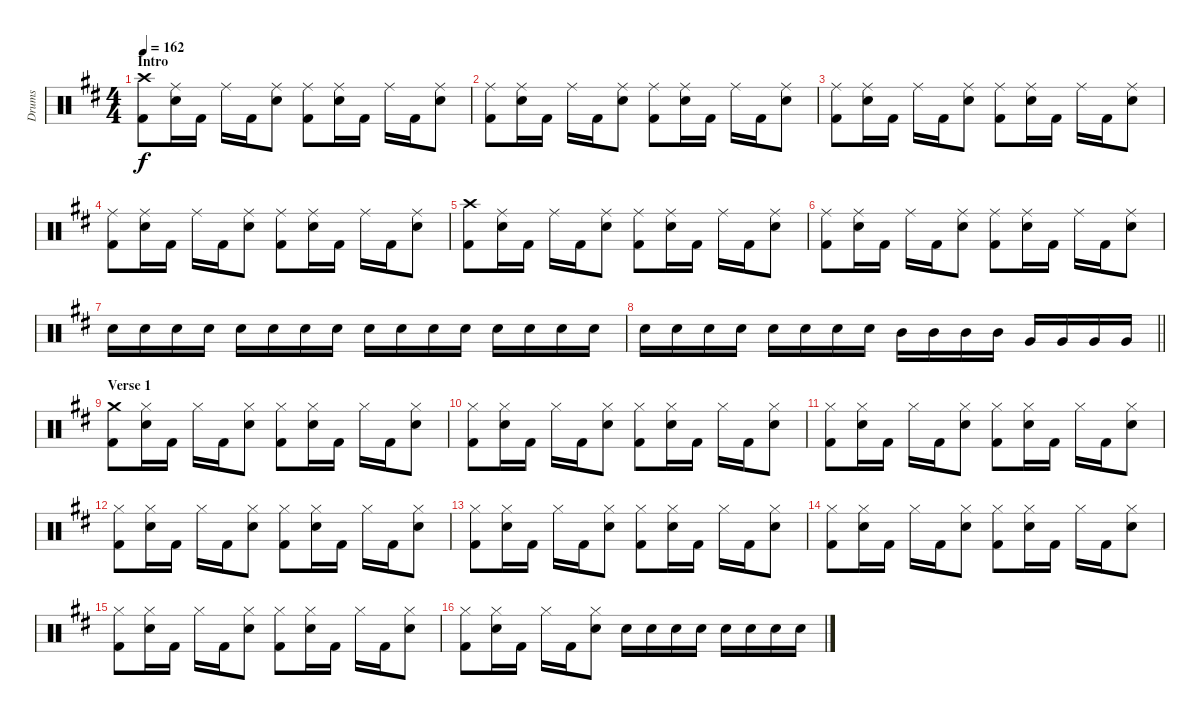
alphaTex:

\track ("Drums" "Drums") {instrument percussion}
\staff {score}
\articulation defaults
\ts (4 4)
\section ("" "Intro")
\tempo 162
\clef neutral
\ks d
("Crash high (hit)" "Kick (hit) 2").8{dy f} ("Ride (middle)" "Snare (hit) 2").16 "Kick (hit) 2".16 "Ride (middle)".16 "Kick (hit) 2".16 ("Ride (middle)" "Snare (hit) 2").8 ("Ride (middle)" "Kick (hit) 2").8 ("Ride (middle)" "Snare (hit) 2").16 "Kick (hit) 2".16 "Ride (middle)".16 "Kick (hit) 2".16 ("Ride (middle)" "Snare (hit) 2").8 |
("Ride (middle)" "Kick (hit) 2").8 ("Ride (middle)" "Snare (hit) 2").16 "Kick (hit) 2".16 "Ride (middle)".16 "Kick (hit) 2".16 ("Ride (middle)" "Snare (hit) 2").8 ("Ride (middle)" "Kick (hit) 2").8 ("Ride (middle)" "Snare (hit) 2").16 "Kick (hit) 2".16 "Ride (middle)".16 "Kick (hit) 2".16 ("Ride (middle)" "Snare (hit) 2").8 |
("Ride (middle)" "Kick (hit) 2").8 ("Ride (middle)" "Snare (hit) 2").16 "Kick (hit) 2".16 "Ride (middle)".16 "Kick (hit) 2".16 ("Ride (middle)" "Snare (hit) 2").8 ("Ride (middle)" "Kick (hit) 2").8 ("Ride (middle)" "Snare (hit) 2").16 "Kick (hit) 2".16 "Ride (middle)".16 "Kick (hit) 2".16 ("Ride (middle)" "Snare (hit) 2").8 |
("Ride (middle)" "Kick (hit) 2").8 ("Ride (middle)" "Snare (hit) 2").16 "Kick (hit) 2".16 "Ride (middle)".16 "Kick (hit) 2".16 ("Ride (middle)" "Snare (hit) 2").8 ("Ride (middle)" "Kick (hit) 2").8 ("Ride (middle)" "Snare (hit) 2").16 "Kick (hit) 2".16 "Ride (middle)".16 "Kick (hit) 2".16 ("Ride (middle)" "Snare (hit) 2").8 |
("Crash high (hit)" "Kick (hit) 2").8 ("Ride (middle)" "Snare (hit) 2").16 "Kick (hit) 2".16 "Ride (middle)".16 "Kick (hit) 2".16 ("Ride (middle)" "Snare (hit) 2").8 ("Ride (middle)" "Kick (hit) 2").8 ("Ride (middle)" "Snare (hit) 2").16 "Kick (hit) 2".16 "Ride (middle)".16 "Kick (hit) 2".16 ("Ride (middle)" "Snare (hit) 2").8 |
("Ride (middle)" "Kick (hit) 2").8 ("Ride (middle)" "Snare (hit) 2").16 "Kick (hit) 2".16 "Ride (middle)".16 "Kick (hit) 2".16 ("Ride (middle)" "Snare (hit) 2").8 ("Ride (middle)" "Kick (hit) 2").8 ("Ride (middle)" "Snare (hit) 2").16 "Kick (hit) 2".16 "Ride (middle)".16 "Kick (hit) 2".16 ("Ride (middle)" "Snare (hit) 2").8 |
"Snare (hit) 2".16 "Snare (hit) 2".16 "Snare (hit) 2".16 "Snare (hit) 2".16 "Snare (hit) 2".16 "Snare (hit) 2".16 "Snare (hit) 2".16 "Snare (hit) 2".16 "Snare (hit) 2".16 "Snare (hit) 2".16 "Snare (hit) 2".16 "Snare (hit) 2".16 "Snare (hit) 2".16 "Snare (hit) 2".16 "Snare (hit) 2".16 "Snare (hit) 2".16 |
\barLineRight lightlight "Snare (hit) 2".16 "Snare (hit) 2".16 "Snare (hit) 2".16 "Snare (hit) 2".16 "Snare (hit) 2".16 "Snare (hit) 2".16 "Snare (hit) 2".16 "Snare (hit) 2".16 "Mid Tom (hit)".16 "Mid Tom (hit)".16 "Mid Tom (hit)".16 "Mid Tom (hit)".16 "Very Low Tom (hit)".16 "Very Low Tom (hit)".16 "Very Low Tom (hit)".16 "Very Low Tom (hit)".16
|
\section ("" "Verse 1")
("Crash medium (hit)" "Kick (hit) 2").8 ("Hi-Hat (closed)" "Snare (hit) 2").16 "Kick (hit) 2".16 "Hi-Hat (closed)".16 "Kick (hit) 2".16 ("Hi-Hat (closed)" "Snare (hit) 2").8 ("Hi-Hat (closed)" "Kick (hit) 2").8 ("Hi-Hat (closed)" "Snare (hit) 2").16 "Kick (hit) 2".16 "Hi-Hat (closed)".16 "Kick (hit) 2".16 ("Hi-Hat (closed)" "Snare (hit) 2").8 |
("Hi-Hat (closed)" "Kick (hit) 2").8 ("Hi-Hat (closed)" "Snare (hit) 2").16 "Kick (hit) 2".16 "Hi-Hat (closed)".16 "Kick (hit) 2".16 ("Hi-Hat (closed)" "Snare (hit) 2").8 ("Hi-Hat (closed)" "Kick (hit) 2").8 ("Hi-Hat (closed)" "Snare (hit) 2").16 "Kick (hit) 2".16 "Hi-Hat (closed)".16 "Kick (hit) 2".16 ("Hi-Hat (closed)" "Snare (hit) 2").8 |
("Hi-Hat (closed)" "Kick (hit) 2").8 ("Hi-Hat (closed)" "Snare (hit) 2").16 "Kick (hit) 2".16 "Hi-Hat (closed)".16 "Kick (hit) 2".16 ("Hi-Hat (closed)" "Snare (hit) 2").8 ("Hi-Hat (closed)" "Kick (hit) 2").8 ("Hi-Hat (closed)" "Snare (hit) 2").16 "Kick (hit) 2".16 "Hi-Hat (closed)".16 "Kick (hit) 2".16 ("Hi-Hat (closed)" "Snare (hit) 2").8 |
("Hi-Hat (closed)" "Kick (hit) 2").8 ("Hi-Hat (closed)" "Snare (hit) 2").16 "Kick (hit) 2".16 "Hi-Hat (closed)".16 "Kick (hit) 2".16 ("Hi-Hat (closed)" "Snare (hit) 2").8 ("Hi-Hat (closed)" "Kick (hit) 2").8 ("Hi-Hat (closed)" "Snare (hit) 2").16 "Kick (hit) 2".16 "Hi-Hat (closed)".16 "Kick (hit) 2".16 ("Hi-Hat (closed)" "Snare (hit) 2").8 |
("Hi-Hat (closed)" "Kick (hit) 2").8 ("Hi-Hat (closed)" "Snare (hit) 2").16 "Kick (hit) 2".16 "Hi-Hat (closed)".16 "Kick (hit) 2".16 ("Hi-Hat (closed)" "Snare (hit) 2").8 ("Hi-Hat (closed)" "Kick (hit) 2").8 ("Hi-Hat (closed)" "Snare (hit) 2").16 "Kick (hit) 2".16 "Hi-Hat (closed)".16 "Kick (hit) 2".16 ("Hi-Hat (closed)" "Snare (hit) 2").8 |
("Hi-Hat (closed)" "Kick (hit) 2").8 ("Hi-Hat (closed)" "Snare (hit) 2").16 "Kick (hit) 2".16 "Hi-Hat (closed)".16 "Kick (hit) 2".16 ("Hi-Hat (closed)" "Snare (hit) 2").8 ("Hi-Hat (closed)" "Kick (hit) 2").8 ("Hi-Hat (closed)" "Snare (hit) 2").16 "Kick (hit) 2".16 "Hi-Hat (closed)".16 "Kick (hit) 2".16 ("Hi-Hat (closed)" "Snare (hit) 2").8 |
("Hi-Hat (closed)" "Kick (hit) 2").8 ("Hi-Hat (closed)" "Snare (hit) 2").16 "Kick (hit) 2".16 "Hi-Hat (closed)".16 "Kick (hit) 2".16 ("Hi-Hat (closed)" "Snare (hit) 2").8 ("Hi-Hat (closed)" "Kick (hit) 2").8 ("Hi-Hat (closed)" "Snare (hit) 2").16 "Kick (hit) 2".16 "Hi-Hat (closed)".16 "Kick (hit) 2".16 ("Hi-Hat (closed)" "Snare (hit) 2").8 |
("Hi-Hat (closed)" "Kick (hit) 2").8 ("Hi-Hat (closed)" "Snare (hit) 2").16 "Kick (hit) 2".16 "Hi-Hat (closed)".16 "Kick (hit) 2".16 ("Hi-Hat (closed)" "Snare (hit) 2").8 "Snare (hit) 2".16 "Snare (hit) 2".16 "Snare (hit) 2".16 "Snare (hit) 2".16 "Snare (hit) 2".16 "Snare (hit) 2".16 "Snare (hit) 2".16 "Snare (hit) 2".16
